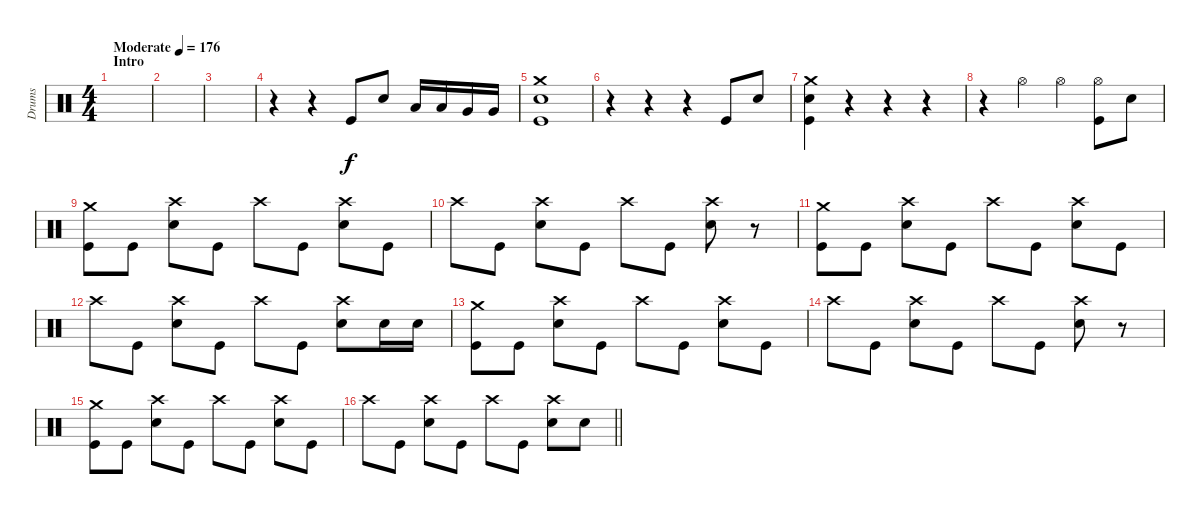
\track ("Drums" "Drums") {instrument percussion}
\staff {score}
\articulation defaults
\ts (4 4)
\section ("" "Intro")
\tempo (176 "Moderate")
\clef neutral
\ks c
|
|
|
r.4 r.4 "Kick (hit)".8 "Electric Snare (hit)".8 "Low Tom (hit)".16 "Low Tom (hit)".16 "Very Low Tom (hit)".16 "Very Low Tom (hit)".16 |
("Crash medium (hit)" "Electric Snare (hit)" "Kick (hit)").1 |
r.4 r.4 r.4 "Kick (hit)".8 "Electric Snare (hit)".8 |
("Crash medium (hit)" "Electric Snare (hit)" "Kick (hit)").4 r.4 r.4 r.4 |
r.4 "Hi-Hat (open)".4 "Hi-Hat (open)".4 ("Hi-Hat (open)" "Kick (hit)").8 "Electric Snare (hit)".8 |
("Crash medium (hit)" "Kick (hit)").8 "Kick (hit)".8 ("Crash high (hit)" "Electric Snare (hit)").8 "Kick (hit)".8 "Crash high (hit)".8 "Kick (hit)".8 ("Crash high (hit)" "Electric Snare (hit)").8 "Kick (hit)".8 |
"Crash high (hit)".8 "Kick (hit)".8 ("Crash high (hit)" "Electric Snare (hit)").8 "Kick (hit)".8 "Crash high (hit)".8 "Kick (hit)".8 ("Crash high (hit)" "Electric Snare (hit)").8 r.8 |
("Crash medium (hit)" "Kick (hit)").8 "Kick (hit)".8 ("Crash high (hit)" "Electric Snare (hit)").8 "Kick (hit)".8 "Crash high (hit)".8 "Kick (hit)".8 ("Crash high (hit)" "Electric Snare (hit)").8 "Kick (hit)".8 |
"Crash high (hit)".8 "Kick (hit)".8 ("Crash high (hit)" "Electric Snare (hit)").8 "Kick (hit)".8 "Crash high (hit)".8 "Kick (hit)".8 ("Crash high (hit)" "Electric Snare (hit)").8 "Electric Snare (hit)".16 "Electric Snare (hit)".16 |
("Crash medium (hit)" "Kick (hit)").8 "Kick (hit)".8 ("Crash high (hit)" "Electric Snare (hit)").8 "Kick (hit)".8 "Crash high (hit)".8 "Kick (hit)".8 ("Crash high (hit)" "Electric Snare (hit)").8 "Kick (hit)".8 |
"Crash high (hit)".8 "Kick (hit)".8 ("Crash high (hit)" "Electric Snare (hit)").8 "Kick (hit)".8 "Crash high (hit)".8 "Kick (hit)".8 ("Crash high (hit)" "Electric Snare (hit)").8 r.8 |
("Crash medium (hit)" "Kick (hit)").8 "Kick (hit)".8 ("Crash high (hit)" "Electric Snare (hit)").8 "Kick (hit)".8 "Crash high (hit)".8 "Kick (hit)".8 ("Crash high (hit)" "Electric Snare (hit)").8 "Kick (hit)".8 |
\barLineRight lightlight "Crash high (hit)".8 "Kick (hit)".8
("Crash high (hit)" "Electric Snare (hit)").8 "Kick (hit)".8 "Crash high (hit)".8 "Kick (hit)".8 ("Crash high (hit)" "Electric Snare (hit)").8 "Electric Snare (hit)".8
